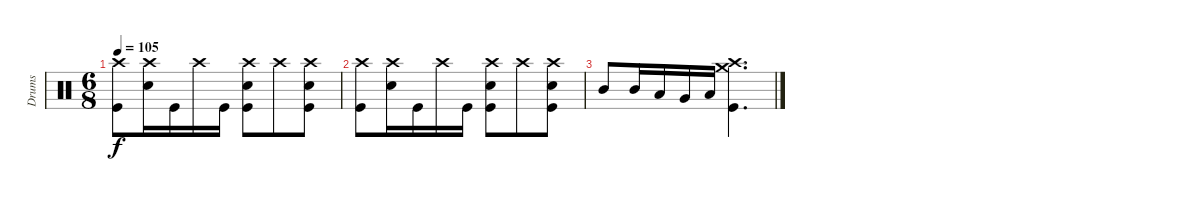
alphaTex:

\track ("Drums" "Drums") {instrument percussion}
\staff {score}
\articulation defaults
\ts (6 8)
\tempo 105
\clef neutral
\ks c
("Crash high (hit)" "Kick (hit)").8{dy f} ("Crash high (hit)" "Electric Snare (hit)").16 "Kick (hit)".16 "Crash high (hit)".16 "Kick (hit)".16 ("Crash high (hit)" "Electric Snare (hit)" "Kick (hit)").8 "Crash high (hit)".8 ("Crash high (hit)" "Electric Snare (hit)" "Kick (hit)").8 |
("Crash high (hit)" "Kick (hit)").8 ("Crash high (hit)" "Electric Snare (hit)").16 "Kick (hit)".16 "Crash high (hit)".16 "Kick (hit)".16 ("Crash high (hit)" "Electric Snare (hit)" "Kick (hit)").8 "Crash high (hit)".8 ("Crash high (hit)" "Electric Snare (hit)" "Kick (hit)").8 |
"Mid Tom (hit)".8 "Mid Tom (hit)".16 "Low Tom (hit)".16 "Very Low Tom (hit)".16 "Low Floor Tom (hit)".16 ("Crash medium (hit)" "Crash high (hit)" "Kick (hit)").4{d}
